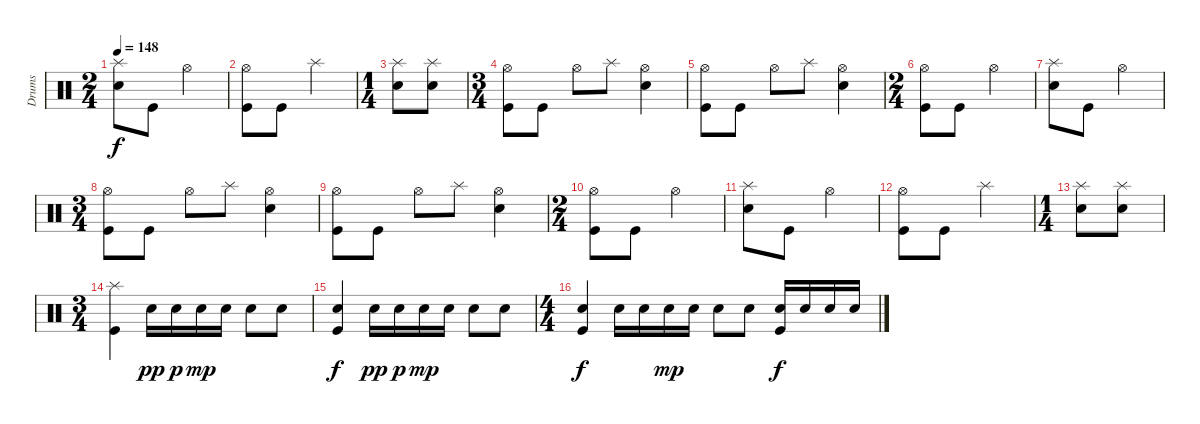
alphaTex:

\track ("Drums" "Drums") {instrument percussion}
\staff {score}
\articulation defaults
\ts (2 4)
\tempo 148
\clef neutral
\ks c
("Splash (hit)" "Snare (hit) 2").8{dy f} "Kick (hit)".8 "Hi-Hat (open)".4 |
("Hi-Hat (open)" "Kick (hit)").8 "Kick (hit)".8 "Splash (hit)".4 |
\ts (1 4)
("Snare (hit) 2" "Splash (hit)").8 ("Snare (hit) 2" "Splash (hit)").8 |
\ts (3 4)
("Hi-Hat (open)" "Kick (hit)").8 "Kick (hit)".8 "Hi-Hat (open)".8 "Splash (hit)".8 ("Hi-Hat (open)" "Snare (hit) 2").4 |
("Hi-Hat (open)" "Kick (hit)").8 "Kick (hit)".8 "Hi-Hat (open)".8 "Splash (hit)".8 ("Hi-Hat (open)" "Snare (hit) 2").4 |
\ts (2 4)
("Hi-Hat (open)" "Kick (hit)").8 "Kick (hit)".8 "Hi-Hat (open)".4 |
("Splash (hit)" "Snare (hit) 2").8 "Kick (hit)".8 "Hi-Hat (open)".4 |
\ts (3 4)
("Hi-Hat (open)" "Kick (hit)").8 "Kick (hit)".8 "Hi-Hat (open)".8 "Splash (hit)".8 ("Hi-Hat (open)" "Snare (hit) 2").4 |
("Hi-Hat (open)" "Kick (hit)").8 "Kick (hit)".8 "Hi-Hat (open)".8 "Splash (hit)".8 ("Hi-Hat (open)" "Snare (hit) 2").4 |
\ts (2 4)
("Hi-Hat (open)" "Kick (hit)").8 "Kick (hit)".8 "Hi-Hat (open)".4 |
("Splash (hit)" "Snare (hit) 2").8 "Kick (hit)".8 "Hi-Hat (open)".4 |
("Hi-Hat (open)" "Kick (hit)").8 "Kick (hit)".8 "Splash (hit)".4 |
\ts (1 4)
("Snare (hit) 2" "Splash (hit)").8 ("Snare (hit) 2" "Splash (hit)").8 |
\ts (3 4)
("Splash (hit)" "Kick (hit)").4 "Snare (hit) 2".16{dy pp} "Snare (hit) 2".16{dy p} "Snare (hit) 2".16{dy mp} "Snare (hit) 2".16 "Snare (hit) 2".8 "Snare (hit) 2".8 |
("Snare (hit) 2" "Kick (hit)").4{dy f} "Snare (hit) 2".16{dy pp} "Snare (hit) 2".16{dy p} "Snare (hit) 2".16{dy mp} "Snare (hit) 2".16 "Snare (hit) 2".8 "Snare (hit) 2".8 |
\ts (4 4)
("Snare (hit) 2" "Kick (hit)").4{dy f} "Snare (hit) 2".16 "Snare (hit) 2".16 "Snare (hit) 2".16{dy mp} "Snare (hit) 2".16 "Snare (hit) 2".8 "Snare (hit) 2".8 ("Kick (hit)" "Snare (hit) 2").16{dy f} "Snare (hit) 2".16 "Snare (hit) 2".16 "Snare (hit) 2".16
